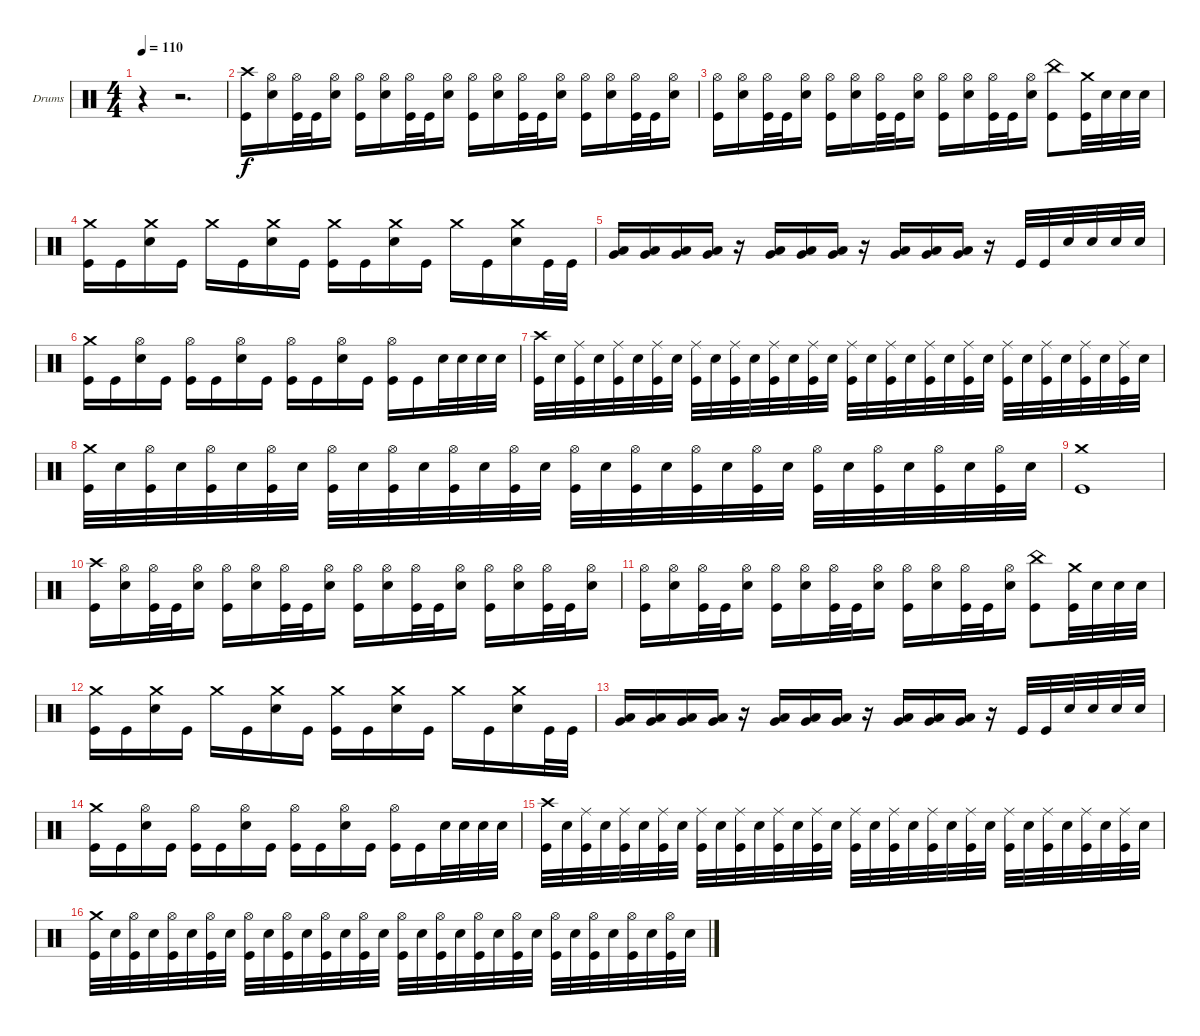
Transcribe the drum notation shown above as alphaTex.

\defaultSystemsLayout 4
\bracketExtendMode groupsimilarinstruments
\firstSystemTrackNameOrientation horizontal
\otherSystemsTrackNameOrientation horizontal
\track ("Drumkit" "Drums") {instrument percussion}
\staff {score}
\articulation defaults
\ts (4 4)
\tempo 110
\clef neutral
\scale
0.314554
\ks c
r.4{dy f} r.2{d} |
\scale
0.685446 ("Crash high (hit)" "Kick (hit)").16 ("Hi-Hat (open)" "Snare (hit) 2").16 ("Hi-Hat (open)" "Kick (hit)").32 "Kick (hit)".32 ("Hi-Hat (open)" "Snare (hit) 2").16 ("Hi-Hat (open)" "Kick (hit)").16 ("Hi-Hat (open)" "Snare (hit) 2").16 ("Hi-Hat (open)" "Kick (hit)").32 "Kick (hit)".32 ("Hi-Hat (open)" "Snare (hit) 2").16 ("Hi-Hat (open)" "Kick (hit)").16 ("Hi-Hat (open)" "Snare (hit) 2").16 ("Hi-Hat (open)" "Kick (hit)").32 "Kick (hit)".32 ("Hi-Hat (open)" "Snare (hit) 2").16 ("Hi-Hat (open)" "Kick (hit)").16 ("Hi-Hat (open)" "Snare (hit) 2").16 ("Hi-Hat (open)" "Kick (hit)").32 "Kick (hit)".32 ("Hi-Hat (open)" "Snare (hit) 2").16 |
\scale
0.517794 ("Hi-Hat (open)" "Kick (hit)").16 ("Hi-Hat (open)" "Snare (hit) 2").16 ("Hi-Hat (open)" "Kick (hit)").32 "Kick (hit)".32 ("Hi-Hat (open)" "Snare (hit) 2").16 ("Hi-Hat (open)" "Kick (hit)").16 ("Hi-Hat (open)" "Snare (hit) 2").16 ("Hi-Hat (open)" "Kick (hit)").32 "Kick (hit)".32 ("Hi-Hat (open)" "Snare (hit) 2").16 ("Hi-Hat (open)" "Kick (hit)").16 ("Hi-Hat (open)" "Snare (hit) 2").16 ("Hi-Hat (open)" "Kick (hit)").32 "Kick (hit)".32 ("Hi-Hat (open)" "Snare (hit) 2").16 ("China (hit)" "Kick (hit)").8 ("Crash medium (hit)" "Kick (hit)").32 "Snare (hit) 2".32 "Snare (hit) 2".32 "Snare (hit) 2".32 |
\scale
0.482206 ("Crash medium (hit)" "Kick (hit)").16 "Kick (hit)".16 ("Crash medium (hit)" "Snare (hit) 2").16 "Kick (hit)".16 "Crash medium (hit)".16 "Kick (hit)".16 ("Crash medium (hit)" "Snare (hit) 2").16 "Kick (hit)".16 ("Crash medium (hit)" "Kick (hit)").16 "Kick (hit)".16 ("Crash medium (hit)" "Snare (hit) 2").16 "Kick (hit)".16 "Crash medium (hit)".16 "Kick (hit)".16 ("Crash medium (hit)" "Snare (hit) 2").16 "Kick (hit)".32 "Kick (hit)".32 |
\scale
0.550162 ("Very Low Tom (hit)" "Low Tom (hit)").16 ("Very Low Tom (hit)" "Low Tom (hit)").16 ("Very Low Tom (hit)" "Low Tom (hit)").16 ("Very Low Tom (hit)" "Low Tom (hit)").16 r.16 ("Very Low Tom (hit)" "Low Tom (hit)").16 ("Very Low Tom (hit)" "Low Tom (hit)").16 ("Very Low Tom (hit)" "Low Tom (hit)").16 r.16 ("Very Low Tom (hit)" "Low Tom (hit)").16 ("Very Low Tom (hit)" "Low Tom (hit)").16 ("Very Low Tom (hit)" "Low Tom (hit)").16 r.16 "Kick (hit)".32 "Kick (hit)".32 "Snare (hit) 2".32 "Snare (hit) 2".32 "Snare (hit) 2".32 "Snare (hit) 2".32 |
\scale
0.449838 ("Crash medium (hit)" "Kick (hit)").16 "Kick (hit)".16 ("Hi-Hat (open)" "Snare (hit) 2").16 "Kick (hit)".16 ("Hi-Hat (open)" "Kick (hit)").16 "Kick (hit)".16 ("Hi-Hat (open)" "Snare (hit) 2").16 "Kick (hit)".16 ("Hi-Hat (open)" "Kick (hit)").16 "Kick (hit)".16 ("Hi-Hat (open)" "Snare (hit) 2").16 "Kick (hit)".16 ("Hi-Hat (open)" "Kick (hit)").16 "Kick (hit)".16 "Snare (hit) 2".32 "Snare (hit) 2".32 "Snare (hit) 2".32 "Snare (hit) 2".32 |
\scale
0.5 ("Crash high (hit)" "Kick (hit)").32 "Snare (hit) 2".32 ("Ride (middle)" "Kick (hit)").32 "Snare (hit) 2".32 ("Ride (middle)" "Kick (hit)").32 "Snare (hit) 2".32 ("Ride (middle)" "Kick (hit)").32 "Snare (hit) 2".32 ("Ride (middle)" "Kick (hit)").32 "Snare (hit) 2".32 ("Ride (middle)" "Kick (hit)").32 "Snare (hit) 2".32 ("Ride (middle)" "Kick (hit)").32 "Snare (hit) 2".32 ("Ride (middle)" "Kick (hit)").32 "Snare (hit) 2".32 ("Ride (middle)" "Kick (hit)").32 "Snare (hit) 2".32 ("Ride (middle)" "Kick (hit)").32 "Snare (hit) 2".32 ("Ride (middle)" "Kick (hit)").32 "Snare (hit) 2".32 ("Ride (middle)" "Kick (hit)").32 "Snare (hit) 2".32 ("Ride (middle)" "Kick (hit)").32 "Snare (hit) 2".32 ("Ride (middle)" "Kick (hit)").32 "Snare (hit) 2".32 ("Ride (middle)" "Kick (hit)").32 "Snare (hit) 2".32 ("Ride (middle)" "Kick (hit)").32 "Snare (hit) 2".32 |
\scale
0.5 ("Crash medium (hit)" "Kick (hit)").32 "Snare (hit) 2".32 ("Hi-Hat (open)" "Kick (hit)").32 "Snare (hit) 2".32 ("Hi-Hat (open)" "Kick (hit)").32 "Snare (hit) 2".32 ("Hi-Hat (open)" "Kick (hit)").32 "Snare (hit) 2".32 ("Hi-Hat (open)" "Kick (hit)").32 "Snare (hit) 2".32 ("Hi-Hat (open)" "Kick (hit)").32 "Snare (hit) 2".32 ("Hi-Hat (open)" "Kick (hit)").32 "Snare (hit) 2".32 ("Hi-Hat (open)" "Kick (hit)").32 "Snare (hit) 2".32 ("Hi-Hat (open)" "Kick (hit)").32 "Snare (hit) 2".32 ("Hi-Hat (open)" "Kick (hit)").32 "Snare (hit) 2".32 ("Hi-Hat (open)" "Kick (hit)").32 "Snare (hit) 2".32 ("Hi-Hat (open)" "Kick (hit)").32 "Snare (hit) 2".32 ("Hi-Hat (open)" "Kick (hit)").32 "Snare (hit) 2".32 ("Hi-Hat (open)" "Kick (hit)").32 "Snare (hit) 2".32 ("Hi-Hat (open)" "Kick (hit)").32 "Snare (hit) 2".32 ("Hi-Hat (open)" "Kick (hit)").32 "Snare (hit) 2".32 |
\scale
0.165714 ("Crash medium (hit)" "Kick (hit)").1 |
\scale
0.834286 ("Crash high (hit)" "Kick (hit)").16 ("Hi-Hat (open)" "Snare (hit) 2").16 ("Hi-Hat (open)" "Kick (hit)").32 "Kick (hit)".32 ("Hi-Hat (open)" "Snare (hit) 2").16 ("Hi-Hat (open)" "Kick (hit)").16 ("Hi-Hat (open)" "Snare (hit) 2").16 ("Hi-Hat (open)" "Kick (hit)").32 "Kick (hit)".32 ("Hi-Hat (open)" "Snare (hit) 2").16 ("Hi-Hat (open)" "Kick (hit)").16 ("Hi-Hat (open)" "Snare (hit) 2").16 ("Hi-Hat (open)" "Kick (hit)").32 "Kick (hit)".32 ("Hi-Hat (open)" "Snare (hit) 2").16 ("Hi-Hat (open)" "Kick (hit)").16 ("Hi-Hat (open)" "Snare (hit) 2").16 ("Hi-Hat (open)" "Kick (hit)").32 "Kick (hit)".32 ("Hi-Hat (open)" "Snare (hit) 2").16 |
\scale
0.517794 ("Hi-Hat (open)" "Kick (hit)").16 ("Hi-Hat (open)" "Snare (hit) 2").16 ("Hi-Hat (open)" "Kick (hit)").32 "Kick (hit)".32 ("Hi-Hat (open)" "Snare (hit) 2").16 ("Hi-Hat (open)" "Kick (hit)").16 ("Hi-Hat (open)" "Snare (hit) 2").16 ("Hi-Hat (open)" "Kick (hit)").32 "Kick (hit)".32 ("Hi-Hat (open)" "Snare (hit) 2").16 ("Hi-Hat (open)" "Kick (hit)").16 ("Hi-Hat (open)" "Snare (hit) 2").16 ("Hi-Hat (open)" "Kick (hit)").32 "Kick (hit)".32 ("Hi-Hat (open)" "Snare (hit) 2").16 ("China (hit)" "Kick (hit)").8 ("Crash medium (hit)" "Kick (hit)").32 "Snare (hit) 2".32 "Snare (hit) 2".32 "Snare (hit) 2".32 |
\scale
0.482206 ("Crash medium (hit)" "Kick (hit)").16 "Kick (hit)".16 ("Crash medium (hit)" "Snare (hit) 2").16 "Kick (hit)".16 "Crash medium (hit)".16 "Kick (hit)".16 ("Crash medium (hit)" "Snare (hit) 2").16 "Kick (hit)".16 ("Crash medium (hit)" "Kick (hit)").16 "Kick (hit)".16 ("Crash medium (hit)" "Snare (hit) 2").16 "Kick (hit)".16 "Crash medium (hit)".16 "Kick (hit)".16 ("Crash medium (hit)" "Snare (hit) 2").16 "Kick (hit)".32 "Kick (hit)".32 |
\scale
0.550162 ("Very Low Tom (hit)" "Low Tom (hit)").16 ("Very Low Tom (hit)" "Low Tom (hit)").16 ("Very Low Tom (hit)" "Low Tom (hit)").16 ("Very Low Tom (hit)" "Low Tom (hit)").16 r.16 ("Very Low Tom (hit)" "Low Tom (hit)").16 ("Very Low Tom (hit)" "Low Tom (hit)").16 ("Very Low Tom (hit)" "Low Tom (hit)").16 r.16 ("Very Low Tom (hit)" "Low Tom (hit)").16 ("Very Low Tom (hit)" "Low Tom (hit)").16 ("Very Low Tom (hit)" "Low Tom (hit)").16 r.16 "Kick (hit)".32 "Kick (hit)".32 "Snare (hit) 2".32 "Snare (hit) 2".32 "Snare (hit) 2".32 "Snare (hit) 2".32 |
\scale
0.449838 ("Crash medium (hit)" "Kick (hit)").16 "Kick (hit)".16 ("Hi-Hat (open)" "Snare (hit) 2").16 "Kick (hit)".16 ("Hi-Hat (open)" "Kick (hit)").16 "Kick (hit)".16 ("Hi-Hat (open)" "Snare (hit) 2").16 "Kick (hit)".16 ("Hi-Hat (open)" "Kick (hit)").16 "Kick (hit)".16 ("Hi-Hat (open)" "Snare (hit) 2").16 "Kick (hit)".16 ("Hi-Hat (open)" "Kick (hit)").16 "Kick (hit)".16 "Snare (hit) 2".32 "Snare (hit) 2".32 "Snare (hit) 2".32 "Snare (hit) 2".32 |
\scale
0.5 ("Crash high (hit)" "Kick (hit)").32 "Snare (hit) 2".32 ("Ride (middle)" "Kick (hit)").32 "Snare (hit) 2".32 ("Ride (middle)" "Kick (hit)").32 "Snare (hit) 2".32 ("Ride (middle)" "Kick (hit)").32 "Snare (hit) 2".32 ("Ride (middle)" "Kick (hit)").32 "Snare (hit) 2".32 ("Ride (middle)" "Kick (hit)").32 "Snare (hit) 2".32 ("Ride (middle)" "Kick (hit)").32 "Snare (hit) 2".32 ("Ride (middle)" "Kick (hit)").32 "Snare (hit) 2".32 ("Ride (middle)" "Kick (hit)").32 "Snare (hit) 2".32 ("Ride (middle)" "Kick (hit)").32 "Snare (hit) 2".32 ("Ride (middle)" "Kick (hit)").32 "Snare (hit) 2".32 ("Ride (middle)" "Kick (hit)").32 "Snare (hit) 2".32 ("Ride (middle)" "Kick (hit)").32 "Snare (hit) 2".32 ("Ride (middle)" "Kick (hit)").32 "Snare (hit) 2".32 ("Ride (middle)" "Kick (hit)").32 "Snare (hit) 2".32 ("Ride (middle)" "Kick (hit)").32 "Snare (hit) 2".32 |
\scale
0.5 ("Crash medium (hit)" "Kick (hit)").32 "Snare (hit) 2".32 ("Hi-Hat (open)" "Kick (hit)").32 "Snare (hit) 2".32 ("Hi-Hat (open)" "Kick (hit)").32 "Snare (hit) 2".32 ("Hi-Hat (open)" "Kick (hit)").32 "Snare (hit) 2".32 ("Hi-Hat (open)" "Kick (hit)").32 "Snare (hit) 2".32 ("Hi-Hat (open)" "Kick (hit)").32 "Snare (hit) 2".32 ("Hi-Hat (open)" "Kick (hit)").32 "Snare (hit) 2".32 ("Hi-Hat (open)" "Kick (hit)").32 "Snare (hit) 2".32 ("Hi-Hat (open)" "Kick (hit)").32 "Snare (hit) 2".32 ("Hi-Hat (open)" "Kick (hit)").32 "Snare (hit) 2".32 ("Hi-Hat (open)" "Kick (hit)").32 "Snare (hit) 2".32 ("Hi-Hat (open)" "Kick (hit)").32 "Snare (hit) 2".32 ("Hi-Hat (open)" "Kick (hit)").32 "Snare (hit) 2".32 ("Hi-Hat (open)" "Kick (hit)").32 "Snare (hit) 2".32 ("Hi-Hat (open)" "Kick (hit)").32 "Snare (hit) 2".32 ("Hi-Hat (open)" "Kick (hit)").32 "Snare (hit) 2".32
